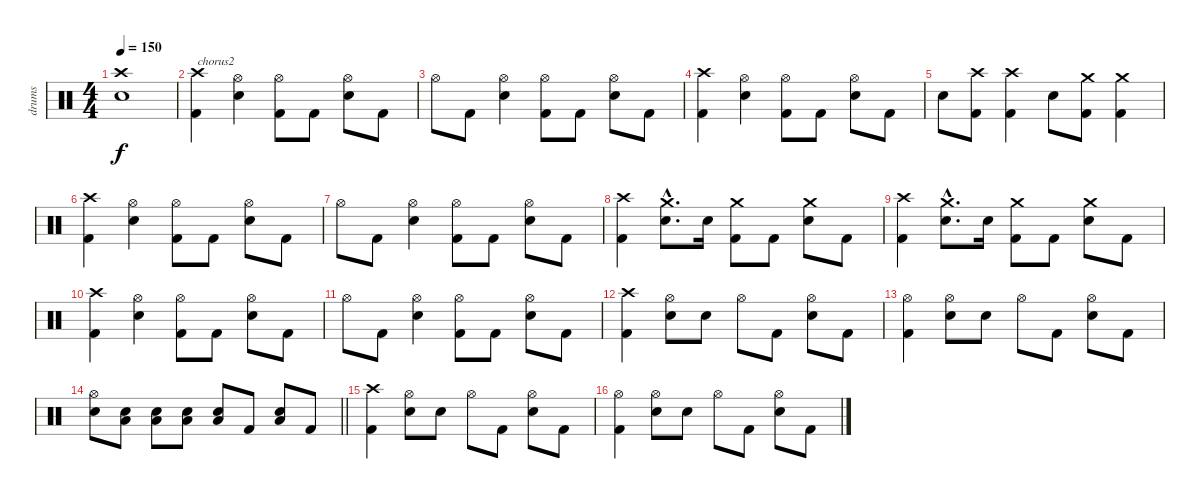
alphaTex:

\track ("drums" "drums") {instrument percussion}
\staff {score}
\articulation defaults
\ts (4 4)
\tempo 150
\clef neutral
\ks c
("Crash high (hit)" "Electric Snare (hit)").1{dy f} |
("Crash high (hit)" "Kick (hit) 2").4{txt "chorus2"} ("Hi-Hat (open)" "Electric Snare (hit)").4 ("Hi-Hat (open)" "Kick (hit) 2").8 "Kick (hit) 2".8 ("Hi-Hat (open)" "Electric Snare (hit)").8 "Kick (hit) 2".8 |
"Hi-Hat (open)".8 "Kick (hit) 2".8 ("Hi-Hat (open)" "Electric Snare (hit)").4 ("Hi-Hat (open)" "Kick (hit) 2").8 "Kick (hit) 2".8 ("Hi-Hat (open)" "Electric Snare (hit)").8 "Kick (hit) 2".8 |
("Crash high (hit)" "Kick (hit) 2").4 ("Hi-Hat (open)" "Electric Snare (hit)").4 ("Hi-Hat (open)" "Kick (hit) 2").8 "Kick (hit) 2".8 ("Hi-Hat (open)" "Electric Snare (hit)").8 "Kick (hit) 2".8 |
"Electric Snare (hit)".8 ("Crash high (hit)" "Kick (hit) 2").8 ("Crash high (hit)" "Kick (hit) 2").4 "Electric Snare (hit)".8 ("Crash medium (hit)" "Kick (hit) 2").8 ("Crash medium (hit)" "Kick (hit) 2").4 |
("Crash high (hit)" "Kick (hit) 2").4 ("Hi-Hat (open)" "Electric Snare (hit)").4 ("Hi-Hat (open)" "Kick (hit) 2").8 "Kick (hit) 2".8 ("Hi-Hat (open)" "Electric Snare (hit)").8 "Kick (hit) 2".8 |
"Hi-Hat (open)".8 "Kick (hit) 2".8 ("Hi-Hat (open)" "Electric Snare (hit)").4 ("Hi-Hat (open)" "Kick (hit) 2").8 "Kick (hit) 2".8 ("Hi-Hat (open)" "Electric Snare (hit)").8 "Kick (hit) 2".8 |
("Crash high (hit)" "Kick (hit) 2").4 ("Crash medium (hit)"{hac} "Electric Snare (hit)"{hac}).8{d} "Electric Snare (hit)".16 ("Crash medium (hit)" "Kick (hit) 2").8 "Kick (hit) 2".8 ("Crash medium (hit)" "Electric Snare (hit)").8 "Kick (hit) 2".8 |
("Crash high (hit)" "Kick (hit) 2").4 ("Crash medium (hit)"{hac} "Electric Snare (hit)"{hac}).8{d} "Electric Snare (hit)".16 ("Crash medium (hit)" "Kick (hit) 2").8 "Kick (hit) 2".8 ("Crash medium (hit)" "Electric Snare (hit)").8 "Kick (hit) 2".8 |
("Crash high (hit)" "Kick (hit) 2").4 ("Hi-Hat (open)" "Electric Snare (hit)").4 ("Hi-Hat (open)" "Kick (hit) 2").8 "Kick (hit) 2".8 ("Hi-Hat (open)" "Electric Snare (hit)").8 "Kick (hit) 2".8 |
"Hi-Hat (open)".8 "Kick (hit) 2".8 ("Hi-Hat (open)" "Electric Snare (hit)").4 ("Hi-Hat (open)" "Kick (hit) 2").8 "Kick (hit) 2".8 ("Hi-Hat (open)" "Electric Snare (hit)").8 "Kick (hit) 2".8 |
("Crash high (hit)" "Kick (hit) 2").4 ("Hi-Hat (open)" "Electric Snare (hit)").8 "Electric Snare (hit)".8 "Hi-Hat (open)".8 "Kick (hit) 2".8 ("Hi-Hat (open)" "Electric Snare (hit)").8 "Kick (hit) 2".8 |
("Hi-Hat (open)" "Kick (hit) 2").4 ("Hi-Hat (open)" "Electric Snare (hit)").8 "Electric Snare (hit)".8 "Hi-Hat (open)".8 "Kick (hit) 2".8 ("Hi-Hat (open)" "Electric Snare (hit)").8 "Kick (hit) 2".8 |
\barLineRight lightlight
("Snare (hit) 2" "Hi-Hat (open)").8 ("Snare (hit) 2" "Low Floor Tom (hit)").8 ("Snare (hit) 2" "Low Floor Tom (hit)").8 ("Snare (hit) 2" "Low Floor Tom (hit)").8 ("Snare (hit) 2" "Low Floor Tom (hit)").8 "Kick (hit) 2".8 ("Snare (hit) 2" "Low Floor Tom (hit)").8 "Kick (hit) 2".8 |
("Crash high (hit)" "Kick (hit) 2").4 ("Hi-Hat (open)" "Electric Snare (hit)").8 "Electric Snare (hit)".8 "Hi-Hat (open)".8 "Kick (hit) 2".8 ("Hi-Hat (open)" "Electric Snare (hit)").8 "Kick (hit) 2".8 |
("Hi-Hat (open)" "Kick (hit) 2").4 ("Hi-Hat (open)" "Electric Snare (hit)").8 "Electric Snare (hit)".8 "Hi-Hat (open)".8 "Kick (hit) 2".8 ("Hi-Hat (open)" "Electric Snare (hit)").8 "Kick (hit) 2".8
